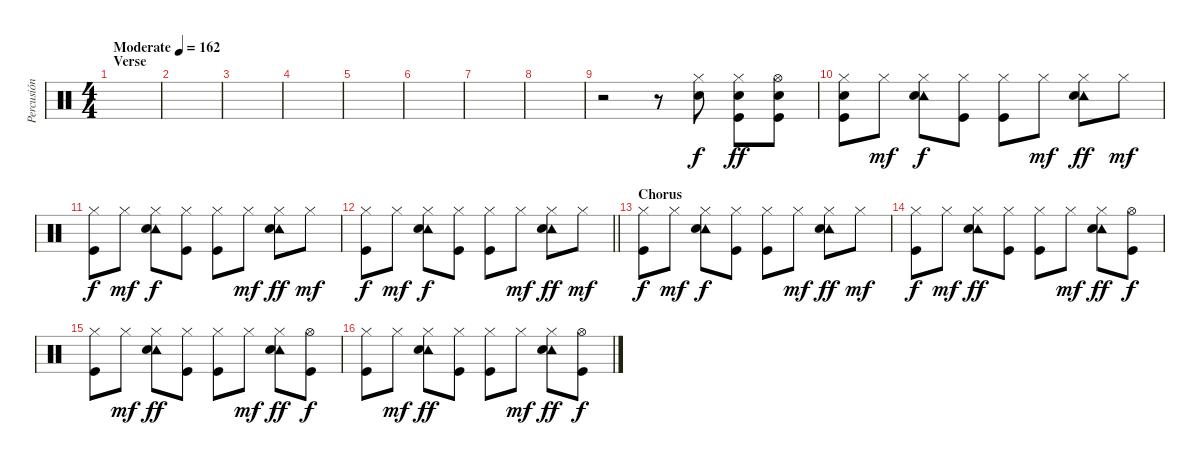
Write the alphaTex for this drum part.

\track ("Percusión" "Percusión") {instrument percussion}
\staff {score}
\articulation defaults
\ts (4 4)
\section ("" "Verse")
\tempo (162 "Moderate")
\clef neutral
\ks c
|
|
|
|
|
|
|
|
r.2 r.8 ("Hi-Hat (closed)" "Snare (hit) 2").8 ("Hi-Hat (closed)" "Snare (hit) 2" "Kick (hit)").8{dy ff} ("Hi-Hat (open)" "Snare (hit) 2" "Kick (hit)").8 |
("Hi-Hat (closed)" "Snare (hit) 2" "Kick (hit)").8 "Hi-Hat (closed)".8{dy mf} ("Hi-Hat (closed)" "Tambourine (hit)" "Snare (hit) 2").8{dy f} ("Hi-Hat (closed)" "Kick (hit)").8 ("Hi-Hat (closed)" "Kick (hit)").8 "Hi-Hat (closed)".8{dy mf} ("Hi-Hat (closed)" "Tambourine (hit)" "Snare (hit) 2").8{dy ff} "Hi-Hat (closed)".8{dy mf} |
("Hi-Hat (closed)" "Kick (hit)").8{dy f} "Hi-Hat (closed)".8{dy mf} ("Hi-Hat (closed)" "Tambourine (hit)" "Snare (hit) 2").8{dy f} ("Hi-Hat (closed)" "Kick (hit)").8 ("Hi-Hat (closed)" "Kick (hit)").8 "Hi-Hat (closed)".8{dy mf} ("Hi-Hat (closed)" "Tambourine (hit)" "Snare (hit) 2").8{dy ff} "Hi-Hat (closed)".8{dy mf} |
\barLineRight lightlight
("Hi-Hat (closed)" "Kick (hit)").8{dy f} "Hi-Hat (closed)".8{dy mf} ("Hi-Hat (closed)" "Tambourine (hit)" "Snare (hit) 2").8{dy f} ("Hi-Hat (closed)" "Kick (hit)").8 ("Hi-Hat (closed)" "Kick (hit)").8 "Hi-Hat (closed)".8{dy mf} ("Hi-Hat (closed)" "Tambourine (hit)" "Snare (hit) 2").8{dy ff} "Hi-Hat (closed)".8{dy mf} |
\section ("" "Chorus")
("Hi-Hat (closed)" "Kick (hit)").8{dy f} "Hi-Hat (closed)".8{dy mf} ("Hi-Hat (closed)" "Tambourine (hit)" "Snare (hit) 2").8{dy f} ("Hi-Hat (closed)" "Kick (hit)").8 ("Hi-Hat (closed)" "Kick (hit)").8 "Hi-Hat (closed)".8{dy mf} ("Hi-Hat (closed)" "Tambourine (hit)" "Snare (hit) 2").8{dy ff} "Hi-Hat (closed)".8{dy mf} |
("Hi-Hat (closed)" "Kick (hit)").8{dy f} "Hi-Hat (closed)".8{dy mf} ("Hi-Hat (closed)" "Tambourine (hit)" "Snare (hit) 2").8{dy ff} ("Hi-Hat (closed)" "Kick (hit)").8 ("Hi-Hat (closed)" "Kick (hit)").8 "Hi-Hat (closed)".8{dy mf} ("Hi-Hat (closed)" "Tambourine (hit)" "Snare (hit) 2").8{dy ff} ("Hi-Hat (open)" "Kick (hit)").8{dy f} |
("Hi-Hat (closed)" "Kick (hit)").8 "Hi-Hat (closed)".8{dy mf} ("Hi-Hat (closed)" "Tambourine (hit)" "Snare (hit) 2").8{dy ff} ("Hi-Hat (closed)" "Kick (hit)").8 ("Hi-Hat (closed)" "Kick (hit)").8 "Hi-Hat (closed)".8{dy mf} ("Hi-Hat (closed)" "Tambourine (hit)" "Snare (hit) 2").8{dy ff} ("Hi-Hat (open)" "Kick (hit)").8{dy f} |
("Hi-Hat (closed)" "Kick (hit)").8 "Hi-Hat (closed)".8{dy mf} ("Hi-Hat (closed)" "Tambourine (hit)" "Snare (hit) 2").8{dy ff} ("Hi-Hat (closed)" "Kick (hit)").8 ("Hi-Hat (closed)" "Kick (hit)").8 "Hi-Hat (closed)".8{dy mf} ("Hi-Hat (closed)" "Tambourine (hit)" "Snare (hit) 2").8{dy ff} ("Hi-Hat (open)" "Kick (hit)").8{dy f}
